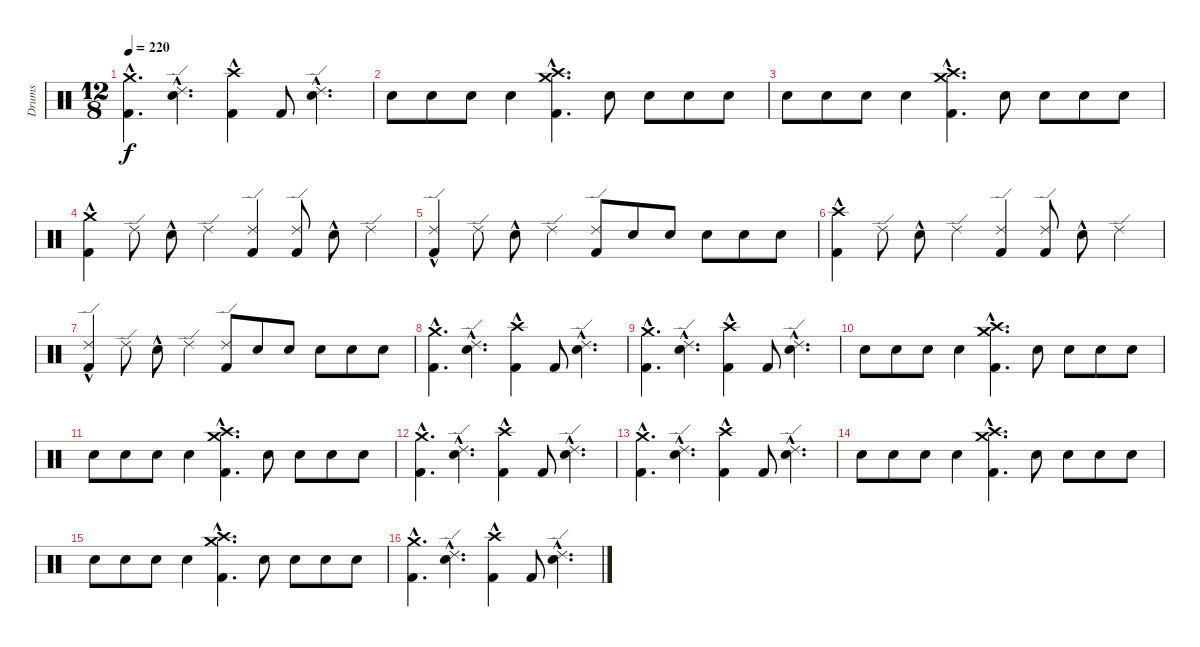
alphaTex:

\track ("Drums" "Drums") {instrument percussion}
\staff {score}
\articulation defaults
\ts (12 8)
\tempo 220
\clef neutral
\ks c
("Kick (hit) 2"{hac} "Crash medium (hit)"{hac}).4{d dy f} ("Ride (edge) 2"{hac} "Snare (hit) 2"{hac}).4{d} ("Kick (hit) 2" "Crash high (hit)"{hac}).4 "Kick (hit) 2".8 ("Ride (edge) 2"{hac} "Snare (hit) 2"{hac}).4{d} |
"Snare (hit) 2".8 "Snare (hit) 2".8 "Snare (hit) 2".8 "Snare (hit) 2".4 ("Crash medium (hit)"{hac} "Crash high (hit)"{hac} "Kick (hit) 2"{hac}).4{d} "Snare (hit) 2".8 "Snare (hit) 2".8 "Snare (hit) 2".8 "Snare (hit) 2".8 |
"Snare (hit) 2".8 "Snare (hit) 2".8 "Snare (hit) 2".8 "Snare (hit) 2".4 ("Crash medium (hit)"{hac} "Crash high (hit)"{hac} "Kick (hit) 2"{hac}).4{d} "Snare (hit) 2".8 "Snare (hit) 2".8 "Snare (hit) 2".8 "Snare (hit) 2".8 |
("Kick (hit) 2"{hac} "Crash medium (hit)").4 "Ride (edge) 2".8 "Snare (hit) 2"{hac}.8 "Ride (edge) 2".4 ("Kick (hit) 2" "Ride (edge) 2").4 ("Kick (hit) 2" "Ride (edge) 2").8 "Snare (hit) 2"{hac}.8 "Ride (edge) 2".4 |
("Ride (edge) 2" "Kick (hit) 2"{hac}).4 "Ride (edge) 2".8 "Snare (hit) 2"{hac}.8 "Ride (edge) 2".4 ("Kick (hit) 2" "Ride (edge) 2").8 "Snare (hit) 2".8 "Snare (hit) 2".8 "Snare (hit) 2".8 "Snare (hit) 2".8 "Snare (hit) 2".8 |
("Kick (hit) 2"{hac} "Crash high (hit)").4 "Ride (edge) 2".8 "Snare (hit) 2"{hac}.8 "Ride (edge) 2".4 ("Kick (hit) 2" "Ride (edge) 2").4 ("Kick (hit) 2" "Ride (edge) 2").8 "Snare (hit) 2"{hac}.8 "Ride (edge) 2".4 |
("Ride (edge) 2" "Kick (hit) 2"{hac}).4 "Ride (edge) 2".8 "Snare (hit) 2"{hac}.8 "Ride (edge) 2".4 ("Kick (hit) 2" "Ride (edge) 2").8 "Snare (hit) 2".8 "Snare (hit) 2".8 "Snare (hit) 2".8 "Snare (hit) 2".8 "Snare (hit) 2".8 |
("Kick (hit) 2"{hac} "Crash medium (hit)"{hac}).4{d} ("Ride (edge) 2"{hac} "Snare (hit) 2"{hac}).4{d} ("Kick (hit) 2" "Crash high (hit)"{hac}).4 "Kick (hit) 2".8 ("Ride (edge) 2"{hac} "Snare (hit) 2"{hac}).4{d} |
("Kick (hit) 2"{hac} "Crash medium (hit)"{hac}).4{d} ("Ride (edge) 2"{hac} "Snare (hit) 2"{hac}).4{d} ("Kick (hit) 2" "Crash high (hit)"{hac}).4 "Kick (hit) 2".8 ("Ride (edge) 2"{hac} "Snare (hit) 2"{hac}).4{d} |
"Snare (hit) 2".8 "Snare (hit) 2".8 "Snare (hit) 2".8 "Snare (hit) 2".4 ("Crash medium (hit)"{hac} "Crash high (hit)"{hac} "Kick (hit) 2"{hac}).4{d} "Snare (hit) 2".8 "Snare (hit) 2".8 "Snare (hit) 2".8 "Snare (hit) 2".8 |
"Snare (hit) 2".8 "Snare (hit) 2".8 "Snare (hit) 2".8 "Snare (hit) 2".4 ("Crash medium (hit)"{hac} "Crash high (hit)"{hac} "Kick (hit) 2"{hac}).4{d} "Snare (hit) 2".8 "Snare (hit) 2".8 "Snare (hit) 2".8 "Snare (hit) 2".8 |
("Kick (hit) 2"{hac} "Crash medium (hit)"{hac}).4{d} ("Ride (edge) 2"{hac} "Snare (hit) 2"{hac}).4{d} ("Kick (hit) 2" "Crash high (hit)"{hac}).4 "Kick (hit) 2".8 ("Ride (edge) 2"{hac} "Snare (hit) 2"{hac}).4{d} |
("Kick (hit) 2"{hac} "Crash medium (hit)"{hac}).4{d} ("Ride (edge) 2"{hac} "Snare (hit) 2"{hac}).4{d} ("Kick (hit) 2" "Crash high (hit)"{hac}).4 "Kick (hit) 2".8 ("Ride (edge) 2"{hac} "Snare (hit) 2"{hac}).4{d} |
"Snare (hit) 2".8 "Snare (hit) 2".8 "Snare (hit) 2".8 "Snare (hit) 2".4 ("Crash medium (hit)"{hac} "Crash high (hit)"{hac} "Kick (hit) 2"{hac}).4{d} "Snare (hit) 2".8 "Snare (hit) 2".8 "Snare (hit) 2".8 "Snare (hit) 2".8 |
"Snare (hit) 2".8 "Snare (hit) 2".8 "Snare (hit) 2".8 "Snare (hit) 2".4 ("Crash medium (hit)"{hac} "Crash high (hit)"{hac} "Kick (hit) 2"{hac}).4{d} "Snare (hit) 2".8 "Snare (hit) 2".8 "Snare (hit) 2".8 "Snare (hit) 2".8 |
("Kick (hit) 2"{hac} "Crash medium (hit)"{hac}).4{d} ("Ride (edge) 2"{hac} "Snare (hit) 2"{hac}).4{d} ("Kick (hit) 2" "Crash high (hit)"{hac}).4 "Kick (hit) 2".8 ("Ride (edge) 2"{hac} "Snare (hit) 2"{hac}).4{d}
